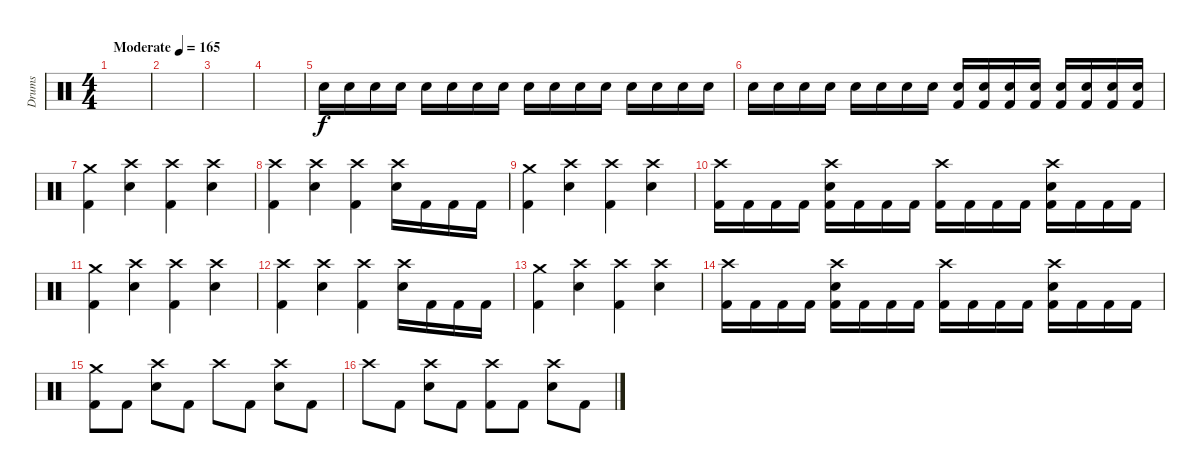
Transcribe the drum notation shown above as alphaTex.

\track ("Drums" "Drums") {instrument percussion}
\staff {score}
\articulation defaults
\ts (4 4)
\tempo (165 "Moderate")
\clef neutral
\ks c
|
|
|
|
"Electric Snare (hit)".16 "Electric Snare (hit)".16 "Electric Snare (hit)".16 "Electric Snare (hit)".16 "Electric Snare (hit)".16 "Electric Snare (hit)".16 "Electric Snare (hit)".16 "Electric Snare (hit)".16 "Electric Snare (hit)".16 "Electric Snare (hit)".16 "Electric Snare (hit)".16 "Electric Snare (hit)".16 "Electric Snare (hit)".16 "Electric Snare (hit)".16 "Electric Snare (hit)".16 "Electric Snare (hit)".16 |
"Electric Snare (hit)".16 "Electric Snare (hit)".16 "Electric Snare (hit)".16 "Electric Snare (hit)".16 "Electric Snare (hit)".16 "Electric Snare (hit)".16 "Electric Snare (hit)".16 "Electric Snare (hit)".16 ("Electric Snare (hit)" "Kick (hit) 2").16 ("Electric Snare (hit)" "Kick (hit) 2").16 ("Electric Snare (hit)" "Kick (hit) 2").16 ("Electric Snare (hit)" "Kick (hit) 2").16 ("Electric Snare (hit)" "Kick (hit) 2").16 ("Electric Snare (hit)" "Kick (hit) 2").16 ("Electric Snare (hit)" "Kick (hit) 2").16 ("Electric Snare (hit)" "Kick (hit) 2").16 |
("Crash medium (hit)" "Kick (hit) 2").4 ("Crash high (hit)" "Electric Snare (hit)").4 ("Crash high (hit)" "Kick (hit) 2").4 ("Crash high (hit)" "Electric Snare (hit)").4 |
("Crash high (hit)" "Kick (hit) 2").4 ("Crash high (hit)" "Electric Snare (hit)").4 ("Crash high (hit)" "Kick (hit) 2").4 ("Crash high (hit)" "Electric Snare (hit)").16 "Kick (hit) 2".16 "Kick (hit) 2".16 "Kick (hit) 2".16 |
("Crash medium (hit)" "Kick (hit) 2").4 ("Crash high (hit)" "Electric Snare (hit)").4 ("Crash high (hit)" "Kick (hit) 2").4 ("Crash high (hit)" "Electric Snare (hit)").4 |
("Crash high (hit)" "Kick (hit) 2").16 "Kick (hit) 2".16 "Kick (hit) 2".16 "Kick (hit) 2".16 ("Crash high (hit)" "Electric Snare (hit)" "Kick (hit) 2").16 "Kick (hit) 2".16 "Kick (hit) 2".16 "Kick (hit) 2".16 ("Crash high (hit)" "Kick (hit) 2").16 "Kick (hit) 2".16 "Kick (hit) 2".16 "Kick (hit) 2".16 ("Crash high (hit)" "Electric Snare (hit)" "Kick (hit) 2").16 "Kick (hit) 2".16 "Kick (hit) 2".16 "Kick (hit) 2".16 |
("Crash medium (hit)" "Kick (hit) 2").4 ("Crash high (hit)" "Electric Snare (hit)").4 ("Crash high (hit)" "Kick (hit) 2").4 ("Crash high (hit)" "Electric Snare (hit)").4 |
("Crash high (hit)" "Kick (hit) 2").4 ("Crash high (hit)" "Electric Snare (hit)").4 ("Crash high (hit)" "Kick (hit) 2").4 ("Crash high (hit)" "Electric Snare (hit)").16 "Kick (hit) 2".16 "Kick (hit) 2".16 "Kick (hit) 2".16 |
("Crash medium (hit)" "Kick (hit) 2").4 ("Crash high (hit)" "Electric Snare (hit)").4 ("Crash high (hit)" "Kick (hit) 2").4 ("Crash high (hit)" "Electric Snare (hit)").4 |
("Crash high (hit)" "Kick (hit) 2").16 "Kick (hit) 2".16 "Kick (hit) 2".16 "Kick (hit) 2".16 ("Crash high (hit)" "Electric Snare (hit)" "Kick (hit) 2").16 "Kick (hit) 2".16 "Kick (hit) 2".16 "Kick (hit) 2".16 ("Crash high (hit)" "Kick (hit) 2").16 "Kick (hit) 2".16 "Kick (hit) 2".16 "Kick (hit) 2".16 ("Crash high (hit)" "Electric Snare (hit)" "Kick (hit) 2").16 "Kick (hit) 2".16 "Kick (hit) 2".16 "Kick (hit) 2".16 |
("Crash medium (hit)" "Kick (hit) 2").8 "Kick (hit) 2".8 ("Crash high (hit)" "Electric Snare (hit)").8 "Kick (hit) 2".8 "Crash high (hit)".8 "Kick (hit) 2".8 ("Crash high (hit)" "Electric Snare (hit)").8 "Kick (hit) 2".8 |
"Crash high (hit)".8 "Kick (hit) 2".8 ("Crash high (hit)" "Electric Snare (hit)").8 "Kick (hit) 2".8 ("Crash high (hit)" "Kick (hit) 2").8 "Kick (hit) 2".8 ("Crash high (hit)" "Electric Snare (hit)").8 "Kick (hit) 2".8
